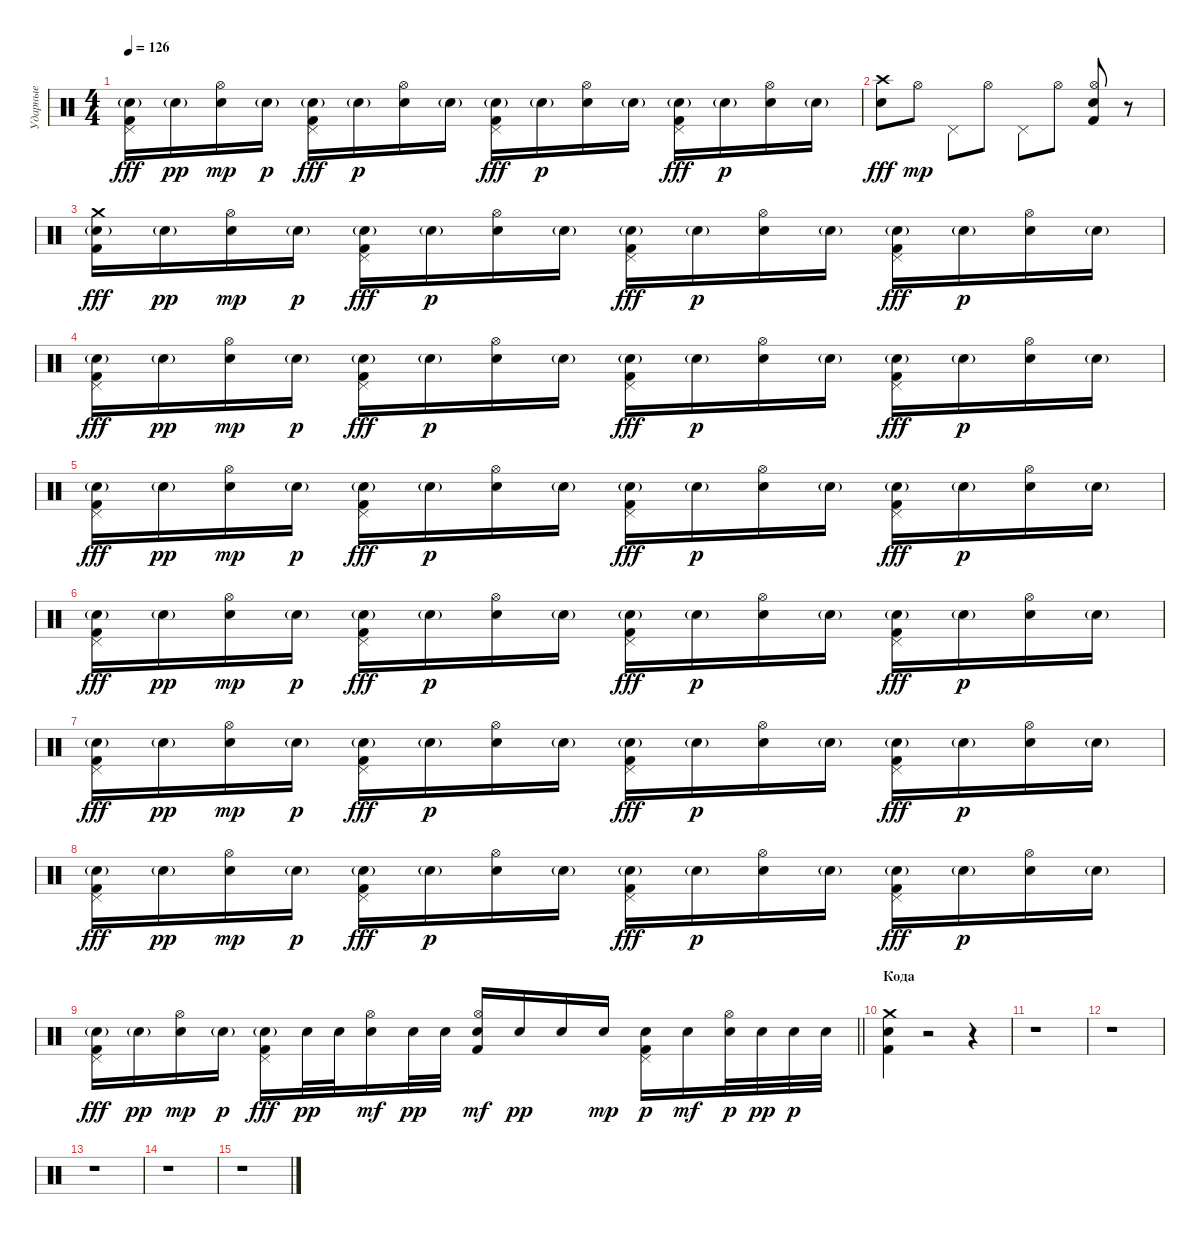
\track ("Ударные" "Ударные") {instrument percussion}
\staff {score}
\articulation defaults
\ts (4 4)
\tempo 126
\clef neutral
\ks c
("Pedal Hi-Hat (hit)" "Snare (hit) 2"{g} "Kick (hit) 2").16{dy fff} "Snare (hit) 2"{g}.16{dy pp} ("Hi-Hat (open)" "Electric Snare (hit)").16{dy mp} "Snare (hit) 2"{g}.16{dy p} ("Pedal Hi-Hat (hit)" "Snare (hit) 2"{g} "Kick (hit) 2").16{dy fff} "Snare (hit) 2"{g}.16{dy p} ("Hi-Hat (open)" "Electric Snare (hit)").16 "Snare (hit) 2"{g}.16 ("Pedal Hi-Hat (hit)" "Snare (hit) 2"{g} "Kick (hit) 2").16{dy fff} "Snare (hit) 2"{g}.16{dy p} ("Hi-Hat (open)" "Electric Snare (hit)").16 "Snare (hit) 2"{g}.16 ("Pedal Hi-Hat (hit)" "Snare (hit) 2"{g} "Kick (hit) 2").16{dy fff} "Snare (hit) 2"{g}.16{dy p} ("Hi-Hat (open)" "Electric Snare (hit)").16 "Snare (hit) 2"{g}.16 |
("Crash high (hit)" "Electric Snare (hit)").8{dy fff} "Hi-Hat (open)".8{dy mp} "Pedal Hi-Hat (hit)".8 "Hi-Hat (open)".8 "Pedal Hi-Hat (hit)".8 "Hi-Hat (open)".8 ("Hi-Hat (open)" "Electric Snare (hit)" "Kick (hit) 2").8 r.8 |
("Crash medium (hit)" "Snare (hit) 2"{g} "Kick (hit) 2").16{dy fff} "Snare (hit) 2"{g}.16{dy pp} ("Hi-Hat (open)" "Electric Snare (hit)").16{dy mp} "Snare (hit) 2"{g}.16{dy p} ("Pedal Hi-Hat (hit)" "Snare (hit) 2"{g} "Kick (hit) 2").16{dy fff} "Snare (hit) 2"{g}.16{dy p} ("Hi-Hat (open)" "Electric Snare (hit)").16 "Snare (hit) 2"{g}.16 ("Pedal Hi-Hat (hit)" "Snare (hit) 2"{g} "Kick (hit) 2").16{dy fff} "Snare (hit) 2"{g}.16{dy p} ("Hi-Hat (open)" "Electric Snare (hit)").16 "Snare (hit) 2"{g}.16 ("Pedal Hi-Hat (hit)" "Snare (hit) 2"{g} "Kick (hit) 2").16{dy fff} "Snare (hit) 2"{g}.16{dy p} ("Hi-Hat (open)" "Electric Snare (hit)").16 "Snare (hit) 2"{g}.16 |
("Pedal Hi-Hat (hit)" "Snare (hit) 2"{g} "Kick (hit) 2").16{dy fff} "Snare (hit) 2"{g}.16{dy pp} ("Hi-Hat (open)" "Electric Snare (hit)").16{dy mp} "Snare (hit) 2"{g}.16{dy p} ("Pedal Hi-Hat (hit)" "Snare (hit) 2"{g} "Kick (hit) 2").16{dy fff} "Snare (hit) 2"{g}.16{dy p} ("Hi-Hat (open)" "Electric Snare (hit)").16 "Snare (hit) 2"{g}.16 ("Pedal Hi-Hat (hit)" "Snare (hit) 2"{g} "Kick (hit) 2").16{dy fff} "Snare (hit) 2"{g}.16{dy p} ("Hi-Hat (open)" "Electric Snare (hit)").16 "Snare (hit) 2"{g}.16 ("Pedal Hi-Hat (hit)" "Snare (hit) 2"{g} "Kick (hit) 2").16{dy fff} "Snare (hit) 2"{g}.16{dy p} ("Hi-Hat (open)" "Electric Snare (hit)").16 "Snare (hit) 2"{g}.16 |
("Pedal Hi-Hat (hit)" "Snare (hit) 2"{g} "Kick (hit) 2").16{dy fff} "Snare (hit) 2"{g}.16{dy pp} ("Hi-Hat (open)" "Electric Snare (hit)").16{dy mp} "Snare (hit) 2"{g}.16{dy p} ("Pedal Hi-Hat (hit)" "Snare (hit) 2"{g} "Kick (hit) 2").16{dy fff} "Snare (hit) 2"{g}.16{dy p} ("Hi-Hat (open)" "Electric Snare (hit)").16 "Snare (hit) 2"{g}.16 ("Pedal Hi-Hat (hit)" "Snare (hit) 2"{g} "Kick (hit) 2").16{dy fff} "Snare (hit) 2"{g}.16{dy p} ("Hi-Hat (open)" "Electric Snare (hit)").16 "Snare (hit) 2"{g}.16 ("Pedal Hi-Hat (hit)" "Snare (hit) 2"{g} "Kick (hit) 2").16{dy fff} "Snare (hit) 2"{g}.16{dy p} ("Hi-Hat (open)" "Electric Snare (hit)").16 "Snare (hit) 2"{g}.16 |
("Pedal Hi-Hat (hit)" "Snare (hit) 2"{g} "Kick (hit) 2").16{dy fff} "Snare (hit) 2"{g}.16{dy pp} ("Hi-Hat (open)" "Electric Snare (hit)").16{dy mp} "Snare (hit) 2"{g}.16{dy p} ("Pedal Hi-Hat (hit)" "Snare (hit) 2"{g} "Kick (hit) 2").16{dy fff} "Snare (hit) 2"{g}.16{dy p} ("Hi-Hat (open)" "Electric Snare (hit)").16 "Snare (hit) 2"{g}.16 ("Pedal Hi-Hat (hit)" "Snare (hit) 2"{g} "Kick (hit) 2").16{dy fff} "Snare (hit) 2"{g}.16{dy p} ("Hi-Hat (open)" "Electric Snare (hit)").16 "Snare (hit) 2"{g}.16 ("Pedal Hi-Hat (hit)" "Snare (hit) 2"{g} "Kick (hit) 2").16{dy fff} "Snare (hit) 2"{g}.16{dy p} ("Hi-Hat (open)" "Electric Snare (hit)").16 "Snare (hit) 2"{g}.16 |
("Pedal Hi-Hat (hit)" "Snare (hit) 2"{g} "Kick (hit) 2").16{dy fff} "Snare (hit) 2"{g}.16{dy pp} ("Hi-Hat (open)" "Electric Snare (hit)").16{dy mp} "Snare (hit) 2"{g}.16{dy p} ("Pedal Hi-Hat (hit)" "Snare (hit) 2"{g} "Kick (hit) 2").16{dy fff} "Snare (hit) 2"{g}.16{dy p} ("Hi-Hat (open)" "Electric Snare (hit)").16 "Snare (hit) 2"{g}.16 ("Pedal Hi-Hat (hit)" "Snare (hit) 2"{g} "Kick (hit) 2").16{dy fff} "Snare (hit) 2"{g}.16{dy p} ("Hi-Hat (open)" "Electric Snare (hit)").16 "Snare (hit) 2"{g}.16 ("Pedal Hi-Hat (hit)" "Snare (hit) 2"{g} "Kick (hit) 2").16{dy fff} "Snare (hit) 2"{g}.16{dy p} ("Hi-Hat (open)" "Electric Snare (hit)").16 "Snare (hit) 2"{g}.16 |
("Pedal Hi-Hat (hit)" "Snare (hit) 2"{g} "Kick (hit) 2").16{dy fff} "Snare (hit) 2"{g}.16{dy pp} ("Hi-Hat (open)" "Electric Snare (hit)").16{dy mp} "Snare (hit) 2"{g}.16{dy p} ("Pedal Hi-Hat (hit)" "Snare (hit) 2"{g} "Kick (hit) 2").16{dy fff} "Snare (hit) 2"{g}.16{dy p} ("Hi-Hat (open)" "Electric Snare (hit)").16 "Snare (hit) 2"{g}.16 ("Pedal Hi-Hat (hit)" "Snare (hit) 2"{g} "Kick (hit) 2").16{dy fff} "Snare (hit) 2"{g}.16{dy p} ("Hi-Hat (open)" "Electric Snare (hit)").16 "Snare (hit) 2"{g}.16 ("Pedal Hi-Hat (hit)" "Snare (hit) 2"{g} "Kick (hit) 2").16{dy fff} "Snare (hit) 2"{g}.16{dy p} ("Hi-Hat (open)" "Electric Snare (hit)").16 "Snare (hit) 2"{g}.16 |
\barLineRight lightlight
("Pedal Hi-Hat (hit)" "Snare (hit) 2"{g} "Kick (hit) 2").16{dy fff} "Snare (hit) 2"{g}.16{dy pp} ("Hi-Hat (open)" "Electric Snare (hit)").16{dy mp} "Snare (hit) 2"{g}.16{dy p} ("Pedal Hi-Hat (hit)" "Snare (hit) 2"{g} "Kick (hit) 2").16{dy fff} "Electric Snare (hit)".32{dy pp} "Snare (hit) 2".32 ("Hi-Hat (open)" "Electric Snare (hit)").16{dy mf} "Electric Snare (hit)".32{dy pp} "Snare (hit) 2".32 ("Hi-Hat (open)" "Electric Snare (hit)" "Kick (hit) 2").16{dy mf} "Electric Snare (hit)".16{dy pp} "Electric Snare (hit)".16 "Electric Snare (hit)".16{dy mp} ("Pedal Hi-Hat (hit)" "Electric Snare (hit)" "Kick (hit) 2").16{dy p} "Electric Snare (hit)".16{dy mf} ("Hi-Hat (open)" "Electric Snare (hit)").32{dy p} "Electric Snare (hit)".32{dy pp} "Electric Snare (hit)".32{dy p} "Electric Snare (hit)".32 |
\section ("" "Кода")
("Crash medium (hit)" "Electric Snare (hit)" "Kick (hit) 2").4 r.2 r.4 |
r.1 |
r.1 |
r.1 |
r.1 |
r.1
